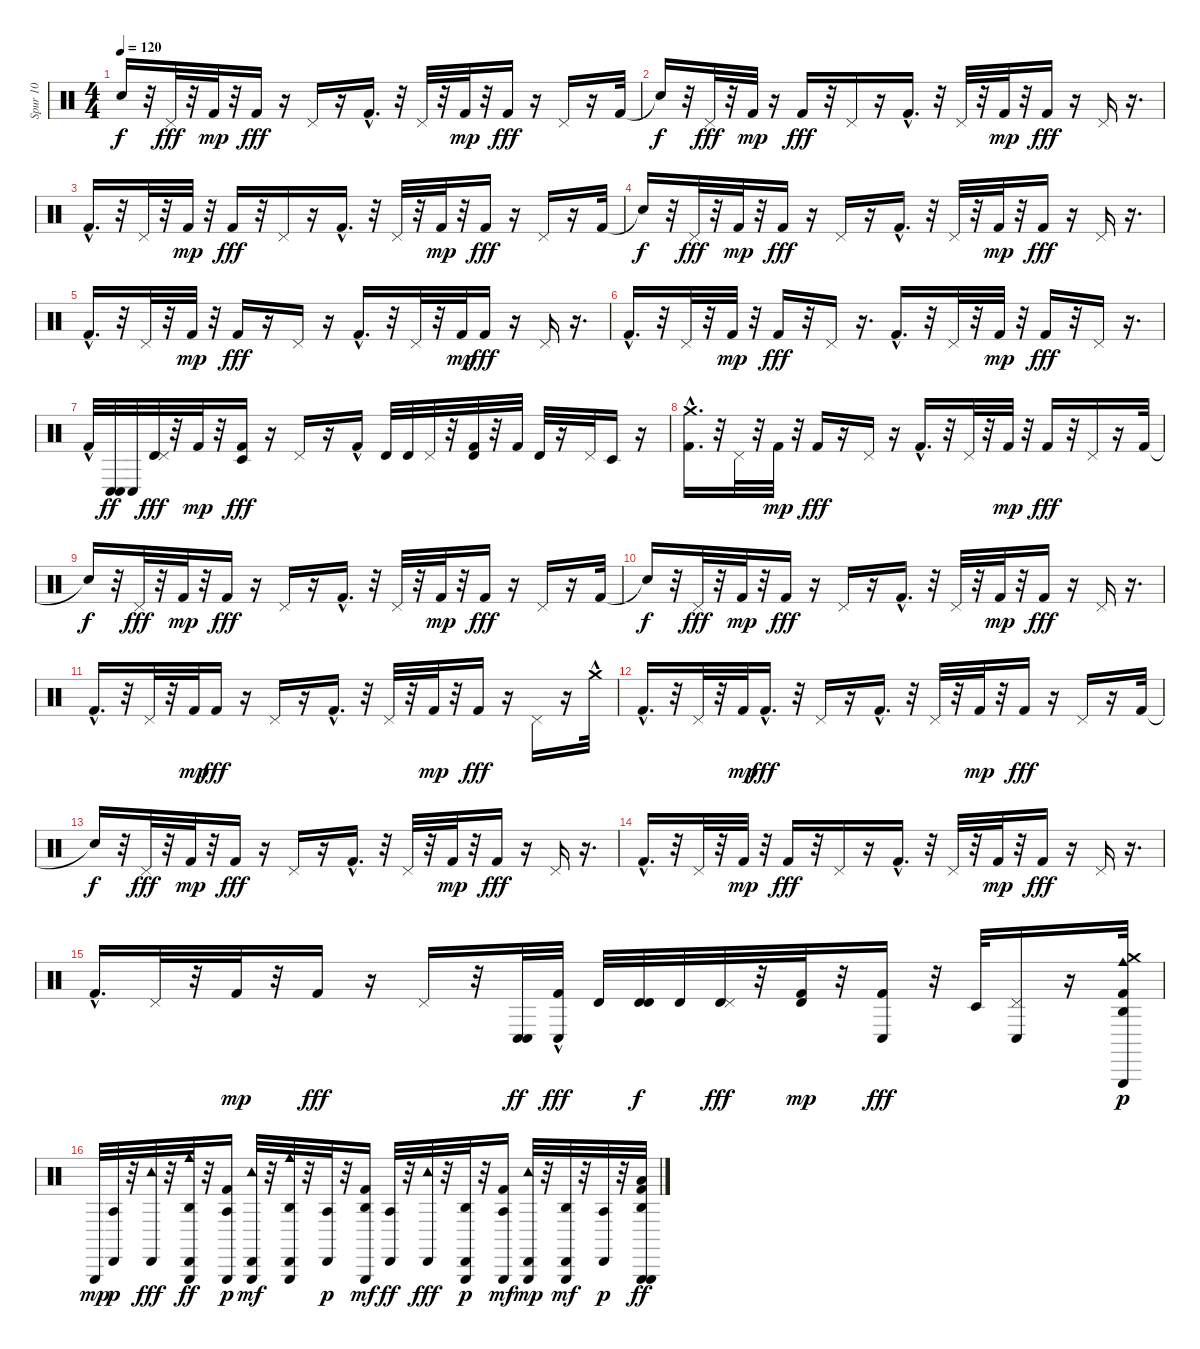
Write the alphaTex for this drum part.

\track ("Spur 10" "Spur 10") {instrument percussion}
\staff {score}
\articulation defaults
\ts (4 4)
\tempo 120
\clef neutral
\ks c "Snare (hit)"{t}.16{dy f}
r.32 "Pedal Hi-Hat (hit)".32{dy fff} r.32 "Kick (hit) 2".32{dy mp} r.32 "Kick (hit) 2".16{dy fff} r.16 "Pedal Hi-Hat (hit)".16 r.16 "Kick (hit) 2"{hac}.16{d} r.32 "Pedal Hi-Hat (hit)".32 r.32 "Kick (hit) 2".32{dy mp} r.32 "Kick (hit) 2".16{dy fff} r.16 "Pedal Hi-Hat (hit)".16 r.16 "Kick (hit) 2".32 |
"Snare (hit)"{t}.16{dy f} r.32 "Pedal Hi-Hat (hit)".32{dy fff} r.32 "Kick (hit) 2".32{dy mp} r.16 "Kick (hit) 2".16{dy fff} r.32 "Pedal Hi-Hat (hit)".16 r.16 "Kick (hit) 2"{hac}.16{d} r.32 "Pedal Hi-Hat (hit)".32 r.32 "Kick (hit) 2".32{dy mp} r.32 "Kick (hit) 2".16{dy fff} r.16 "Pedal Hi-Hat (hit)".16 r.16{d} |
"Kick (hit) 2"{hac}.16{d} r.32 "Pedal Hi-Hat (hit)".32 r.32 "Kick (hit) 2".32{dy mp} r.32 "Kick (hit) 2".16{dy fff} r.32 "Pedal Hi-Hat (hit)".16 r.16 "Kick (hit) 2"{hac}.16{d} r.32 "Pedal Hi-Hat (hit)".32 r.32 "Kick (hit) 2".32{dy mp} r.32 "Kick (hit) 2".16{dy fff} r.16 "Pedal Hi-Hat (hit)".16 r.16 "Kick (hit) 2".32 |
"Snare (hit)"{t}.16{dy f} r.32 "Pedal Hi-Hat (hit)".32{dy fff} r.32 "Kick (hit) 2".32{dy mp} r.32 "Kick (hit) 2".16{dy fff} r.16 "Pedal Hi-Hat (hit)".16 r.16 "Kick (hit) 2"{hac}.16{d} r.32 "Pedal Hi-Hat (hit)".32 r.32 "Kick (hit) 2".32{dy mp} r.32 "Kick (hit) 2".16{dy fff} r.16 "Pedal Hi-Hat (hit)".16 r.16{d} |
"Kick (hit) 2"{hac}.16{d} r.32 "Pedal Hi-Hat (hit)".32 r.32 "Kick (hit) 2".32{dy mp} r.32 "Kick (hit) 2".16{dy fff} r.16 "Pedal Hi-Hat (hit)".16 r.16 "Kick (hit) 2"{hac}.16{d} r.32 "Pedal Hi-Hat (hit)".32 r.32 "Kick (hit) 2".32{dy mp} "Kick (hit) 2".16{dy fff} r.16 "Pedal Hi-Hat (hit)".16 r.16{d} |
"Kick (hit) 2"{hac}.16{d} r.32 "Pedal Hi-Hat (hit)".32 r.32 "Kick (hit) 2".32{dy mp} r.32 "Kick (hit) 2".16{dy fff} r.32 "Pedal Hi-Hat (hit)".16 r.16{d} "Kick (hit) 2"{hac}.16{d} r.32 "Pedal Hi-Hat (hit)".32 r.32 "Kick (hit) 2".32{dy mp} r.32 "Kick (hit) 2".16{dy fff} r.32 "Pedal Hi-Hat (hit)".16 r.16{d} |
"Kick (hit) 2"{hac}.32 ("Conga low (hit)" "Conga low (hit)").32{dy ff} "Conga low (hit)".32 ("Timbale high (hit)" "Pedal Hi-Hat (hit)").32{dy fff} r.32 "Kick (hit) 2".32{dy mp} r.32 ("Timbale low (hit)" "Kick (hit) 2").16{dy fff} r.16 "Pedal Hi-Hat (hit)".16 r.16 "Kick (hit) 2"{hac}.16 "Timbale high (hit)".32 "Timbale high (hit)".32 "Pedal Hi-Hat (hit)".32 r.32 ("Kick (hit) 2" "Timbale high (hit)").32 r.32 "Kick (hit) 2".32 "Timbale high (hit)".32 r.16 "Pedal Hi-Hat (hit)".32 "Timbale low (hit)".16 r.16 |
("Crash medium (hit)"{hac} "Kick (hit) 2"{hac}).16{d} r.32 "Pedal Hi-Hat (hit)".32 r.32 "Kick (hit) 2".32{dy mp} r.32 "Kick (hit) 2".16{dy fff} r.16 "Pedal Hi-Hat (hit)".16 r.16 "Kick (hit) 2"{hac}.16{d} r.32 "Pedal Hi-Hat (hit)".32 r.32 "Kick (hit) 2".32{dy mp} r.32 "Kick (hit) 2".16{dy fff} r.32 "Pedal Hi-Hat (hit)".16 r.16 "Kick (hit) 2".32 |
"Snare (hit)"{t}.16{dy f} r.32 "Pedal Hi-Hat (hit)".32{dy fff} r.32 "Kick (hit) 2".32{dy mp} r.32 "Kick (hit) 2".16{dy fff} r.16 "Pedal Hi-Hat (hit)".16 r.16 "Kick (hit) 2"{hac}.16{d} r.32 "Pedal Hi-Hat (hit)".32 r.32 "Kick (hit) 2".32{dy mp} r.32 "Kick (hit) 2".16{dy fff} r.16 "Pedal Hi-Hat (hit)".16 r.16 "Kick (hit) 2".32 |
"Snare (hit)"{t}.16{dy f} r.32 "Pedal Hi-Hat (hit)".32{dy fff} r.32 "Kick (hit) 2".32{dy mp} r.32 "Kick (hit) 2".16{dy fff} r.16 "Pedal Hi-Hat (hit)".16 r.16 "Kick (hit) 2"{hac}.16{d} r.32 "Pedal Hi-Hat (hit)".32 r.32 "Kick (hit) 2".32{dy mp} r.32 "Kick (hit) 2".16{dy fff} r.16 "Pedal Hi-Hat (hit)".16 r.16{d} |
"Kick (hit) 2"{hac}.16{d} r.32 "Pedal Hi-Hat (hit)".32 r.32 "Kick (hit) 2".32{dy mp} "Kick (hit) 2".16{dy fff} r.16 "Pedal Hi-Hat (hit)".16 r.16 "Kick (hit) 2"{hac}.16{d} r.32 "Pedal Hi-Hat (hit)".32 r.32 "Kick (hit) 2".32{dy mp} r.32 "Kick (hit) 2".16{dy fff} r.16 "Pedal Hi-Hat (hit)".16 r.16 "Crash medium (hit)"{hac}.32 |
"Kick (hit) 2"{hac}.16{d} r.32 "Pedal Hi-Hat (hit)".32 r.32 "Kick (hit) 2".32{dy mp} "Kick (hit) 2"{hac}.16{d dy fff} r.32 "Pedal Hi-Hat (hit)".16 r.16 "Kick (hit) 2"{hac}.16{d} r.32 "Pedal Hi-Hat (hit)".32 r.32 "Kick (hit) 2".32{dy mp} r.32 "Kick (hit) 2".16{dy fff} r.16 "Pedal Hi-Hat (hit)".16 r.16 "Kick (hit) 2".32 |
"Snare (hit)"{t}.16{dy f} r.32 "Pedal Hi-Hat (hit)".32{dy fff} r.32 "Kick (hit) 2".32{dy mp} r.32 "Kick (hit) 2".16{dy fff} r.16 "Pedal Hi-Hat (hit)".16 r.16 "Kick (hit) 2"{hac}.16{d} r.32 "Pedal Hi-Hat (hit)".32 r.32 "Kick (hit) 2".32{dy mp} r.32 "Kick (hit) 2".16{dy fff} r.16 "Pedal Hi-Hat (hit)".16 r.16{d} |
"Kick (hit) 2"{hac}.16{d} r.32 "Pedal Hi-Hat (hit)".32 r.32 "Kick (hit) 2".32{dy mp} r.32 "Kick (hit) 2".16{dy fff} r.32 "Pedal Hi-Hat (hit)".16 r.16 "Kick (hit) 2"{hac}.16{d} r.32 "Pedal Hi-Hat (hit)".32 r.32 "Kick (hit) 2".32{dy mp} r.32 "Kick (hit) 2".16{dy fff} r.16 "Pedal Hi-Hat (hit)".16 r.16{d} |
"Kick (hit) 2"{hac}.16{d} "Pedal Hi-Hat (hit)".32 r.32 "Kick (hit) 2".32{dy mp} r.32 "Kick (hit) 2".16{dy fff} r.16 "Pedal Hi-Hat (hit)".16 r.32 ("Conga low (hit)" "Conga low (hit)").32{dy ff} ("Conga low (hit)" "Kick (hit) 2"{hac}).32{dy fff} "Timbale high (hit)".32 ("Timbale high (hit)" "Timbale high (hit)").32{dy f} "Timbale high (hit)".32 ("Timbale high (hit)" "Pedal Hi-Hat (hit)").32{dy fff} r.32 ("Timbale high (hit)" "Kick (hit) 2").32{dy mp} r.32 ("Conga low (hit)" "Kick (hit) 2").16{dy fff} r.32 "Timbale low (hit)".32 ("Conga low (hit)" "Pedal Hi-Hat (hit)").16 r.16 ("Agogo high (hit)" "Crash medium (hit)" "Cowbell medium (hit)" "Kick (hit) 2" "Triangle (hit)").32{dy p} |
"Triangle (hit)".32{dy mp} ("Cabasa (hit)" "Agogo tow (hit)").32{dy p} r.32 ("Tambourine (hit)" "Cabasa (hit)").32{dy fff} r.32 ("Cabasa (hit)" "Triangle (hit)" "Agogo high (hit)" "Cowbell medium (hit)").32{dy ff} r.32 ("Agogo tow (hit)" "Kick (hit) 2" "Triangle (hit)").16{dy p} ("Triangle (hit)" "Cabasa (hit)" "Tambourine (hit)").32{dy mf} r.32 ("Agogo high (hit)" "Cowbell medium (hit)" "Cabasa (hit)" "Triangle (hit)").32 r.32 ("Agogo tow (hit)" "Cabasa (hit)").32{dy p} r.32 ("Agogo high (hit)" "Kick (hit) 2" "Triangle (hit)").16{dy mf} ("Agogo tow (hit)" "Cabasa (hit)").32{dy ff} r.32 ("Tambourine (hit)" "Cabasa (hit)").32{dy fff} r.32 ("Agogo high (hit)" "Cabasa (hit)" "Triangle (hit)").32{dy p} r.32 ("Agogo tow (hit)" "Kick (hit) 2" "Triangle (hit)").16{dy mf} ("Tambourine (hit)" "Cabasa (hit)" "Triangle (hit)").32{dy mp} r.32 ("Agogo high (hit)" "Cabasa (hit)" "Triangle (hit)").32{dy mf} r.32 ("Agogo tow (hit)" "Cabasa (hit)").32{dy p} r.32 ("Agogo high (hit)" "Kick (hit) 2" "Triangle (hit)" "Triangle (hit)" "Low Tom (hit)").32{dy ff}
